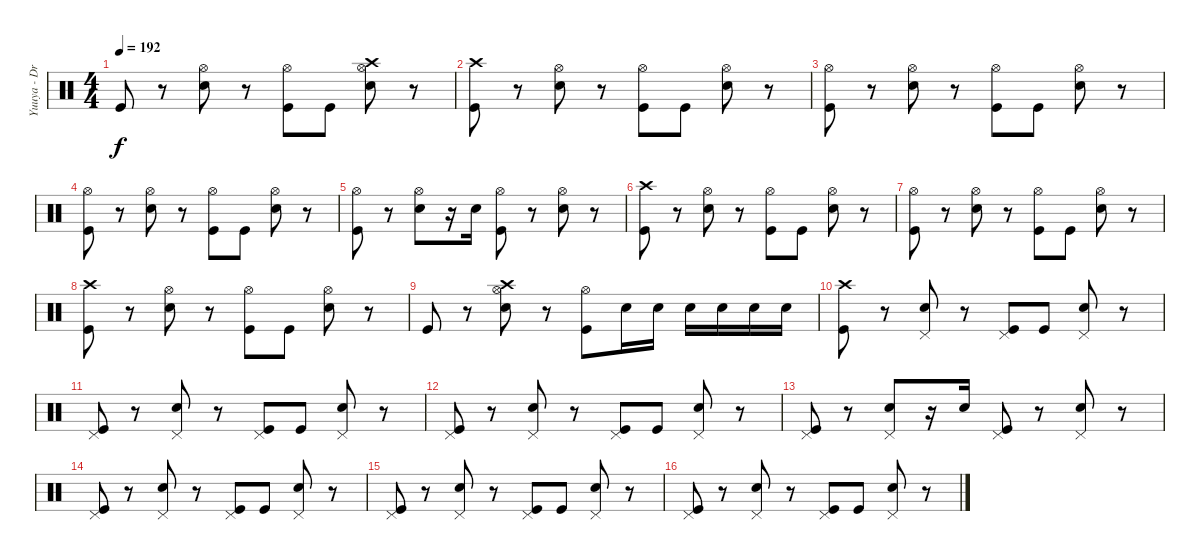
\track ("Yuuya - Drums" "Yuuya - Dr") {instrument percussion}
\staff {score}
\articulation defaults
\ts (4 4)
\tempo 192
\clef neutral
\ks c "Kick (hit)".8{dy f}
r.8 ("Electric Snare (hit)" "Hi-Hat (open)").8 r.8 ("Kick (hit)" "Hi-Hat (open)").8 "Kick (hit)".8 ("Electric Snare (hit)" "Hi-Hat (open)" "Crash high (hit)").8 r.8 |
("Kick (hit)" "Crash high (hit)").8 r.8 ("Electric Snare (hit)" "Hi-Hat (open)").8 r.8 ("Kick (hit)" "Hi-Hat (open)").8 "Kick (hit)".8 ("Electric Snare (hit)" "Hi-Hat (open)").8 r.8 |
("Kick (hit)" "Hi-Hat (open)").8 r.8 ("Electric Snare (hit)" "Hi-Hat (open)").8 r.8 ("Kick (hit)" "Hi-Hat (open)").8 "Kick (hit)".8 ("Electric Snare (hit)" "Hi-Hat (open)").8 r.8 |
("Kick (hit)" "Hi-Hat (open)").8 r.8 ("Electric Snare (hit)" "Hi-Hat (open)").8 r.8 ("Kick (hit)" "Hi-Hat (open)").8 "Kick (hit)".8 ("Electric Snare (hit)" "Hi-Hat (open)").8 r.8 |
("Kick (hit)" "Hi-Hat (open)").8 r.8 ("Electric Snare (hit)" "Hi-Hat (open)").8 r.16 "Electric Snare (hit)".16 ("Kick (hit)" "Hi-Hat (open)").8 r.8 ("Electric Snare (hit)" "Hi-Hat (open)").8 r.8 |
("Kick (hit)" "Crash high (hit)").8 r.8 ("Electric Snare (hit)" "Hi-Hat (open)").8 r.8 ("Kick (hit)" "Hi-Hat (open)").8 "Kick (hit)".8 ("Electric Snare (hit)" "Hi-Hat (open)").8 r.8 |
("Kick (hit)" "Hi-Hat (open)").8 r.8 ("Electric Snare (hit)" "Hi-Hat (open)").8 r.8 ("Kick (hit)" "Hi-Hat (open)").8 "Kick (hit)".8 ("Electric Snare (hit)" "Hi-Hat (open)").8 r.8 |
("Kick (hit)" "Crash high (hit)").8 r.8 ("Electric Snare (hit)" "Hi-Hat (open)").8 r.8 ("Kick (hit)" "Hi-Hat (open)").8 "Kick (hit)".8 ("Electric Snare (hit)" "Hi-Hat (open)").8 r.8 |
"Kick (hit)".8 r.8 ("Electric Snare (hit)" "Hi-Hat (open)" "Crash high (hit)").8 r.8 ("Kick (hit)" "Hi-Hat (open)").8 "Electric Snare (hit)".16 "Electric Snare (hit)".16 "Electric Snare (hit)".16 "Electric Snare (hit)".16 "Electric Snare (hit)".16 "Electric Snare (hit)".16 |
("Kick (hit)" "Crash high (hit)").8 r.8 ("Electric Snare (hit)" "Pedal Hi-Hat (hit)").8 r.8 ("Kick (hit)" "Pedal Hi-Hat (hit)").8 "Kick (hit)".8 ("Electric Snare (hit)" "Pedal Hi-Hat (hit)").8 r.8 |
("Kick (hit)" "Pedal Hi-Hat (hit)").8 r.8 ("Electric Snare (hit)" "Pedal Hi-Hat (hit)").8 r.8 ("Kick (hit)" "Pedal Hi-Hat (hit)").8 "Kick (hit)".8 ("Electric Snare (hit)" "Pedal Hi-Hat (hit)").8 r.8 |
("Kick (hit)" "Pedal Hi-Hat (hit)").8 r.8 ("Electric Snare (hit)" "Pedal Hi-Hat (hit)").8 r.8 ("Kick (hit)" "Pedal Hi-Hat (hit)").8 "Kick (hit)".8 ("Electric Snare (hit)" "Pedal Hi-Hat (hit)").8 r.8 |
("Kick (hit)" "Pedal Hi-Hat (hit)").8 r.8 ("Electric Snare (hit)" "Pedal Hi-Hat (hit)").8 r.16 "Electric Snare (hit)".16 ("Kick (hit)" "Pedal Hi-Hat (hit)").8 r.8 ("Electric Snare (hit)" "Pedal Hi-Hat (hit)").8 r.8 |
("Kick (hit)" "Pedal Hi-Hat (hit)").8 r.8 ("Electric Snare (hit)" "Pedal Hi-Hat (hit)").8 r.8 ("Kick (hit)" "Pedal Hi-Hat (hit)").8 "Kick (hit)".8 ("Electric Snare (hit)" "Pedal Hi-Hat (hit)").8 r.8 |
("Kick (hit)" "Pedal Hi-Hat (hit)").8 r.8 ("Electric Snare (hit)" "Pedal Hi-Hat (hit)").8 r.8 ("Kick (hit)" "Pedal Hi-Hat (hit)").8 "Kick (hit)".8 ("Electric Snare (hit)" "Pedal Hi-Hat (hit)").8 r.8 |
("Kick (hit)" "Pedal Hi-Hat (hit)").8 r.8 ("Electric Snare (hit)" "Pedal Hi-Hat (hit)").8 r.8 ("Kick (hit)" "Pedal Hi-Hat (hit)").8 "Kick (hit)".8 ("Electric Snare (hit)" "Pedal Hi-Hat (hit)").8 r.8
